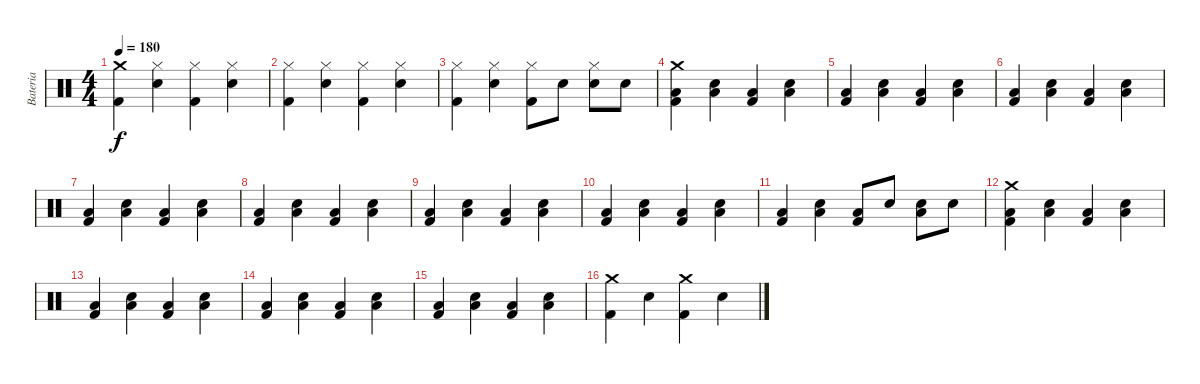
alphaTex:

\track ("Bateria" "Bateria") {instrument percussion}
\staff {score}
\articulation defaults
\ts (4 4)
\tempo 180
\clef neutral
\ks c
("Crash medium (hit)" "Kick (hit) 2").4{dy f} ("Hi-Hat (closed)" "Electric Snare (hit)").4 ("Hi-Hat (closed)" "Kick (hit) 2").4 ("Hi-Hat (closed)" "Electric Snare (hit)").4 |
("Hi-Hat (closed)" "Kick (hit) 2").4 ("Hi-Hat (closed)" "Electric Snare (hit)").4 ("Hi-Hat (closed)" "Kick (hit) 2").4 ("Hi-Hat (closed)" "Electric Snare (hit)").4 |
("Hi-Hat (closed)" "Kick (hit) 2").4 ("Hi-Hat (closed)" "Electric Snare (hit)").4 ("Hi-Hat (closed)" "Kick (hit) 2").8 "Electric Snare (hit)".8 ("Hi-Hat (closed)" "Electric Snare (hit)").8 "Electric Snare (hit)".8 |
("Low Tom (hit)" "Crash medium (hit)" "Kick (hit) 2").4 ("Low Tom (hit)" "Electric Snare (hit)").4 ("Low Tom (hit)" "Kick (hit) 2").4 ("Low Tom (hit)" "Electric Snare (hit)").4 |
("Low Tom (hit)" "Kick (hit) 2").4 ("Low Tom (hit)" "Electric Snare (hit)").4 ("Low Tom (hit)" "Kick (hit) 2").4 ("Low Tom (hit)" "Electric Snare (hit)").4 |
("Low Tom (hit)" "Kick (hit) 2").4 ("Low Tom (hit)" "Electric Snare (hit)").4 ("Low Tom (hit)" "Kick (hit) 2").4 ("Low Tom (hit)" "Electric Snare (hit)").4 |
("Low Tom (hit)" "Kick (hit) 2").4 ("Low Tom (hit)" "Electric Snare (hit)").4 ("Low Tom (hit)" "Kick (hit) 2").4 ("Low Tom (hit)" "Electric Snare (hit)").4 |
("Low Tom (hit)" "Kick (hit) 2").4 ("Low Tom (hit)" "Electric Snare (hit)").4 ("Low Tom (hit)" "Kick (hit) 2").4 ("Low Tom (hit)" "Electric Snare (hit)").4 |
("Low Tom (hit)" "Kick (hit) 2").4 ("Low Tom (hit)" "Electric Snare (hit)").4 ("Low Tom (hit)" "Kick (hit) 2").4 ("Low Tom (hit)" "Electric Snare (hit)").4 |
("Low Tom (hit)" "Kick (hit) 2").4 ("Low Tom (hit)" "Electric Snare (hit)").4 ("Low Tom (hit)" "Kick (hit) 2").4 ("Low Tom (hit)" "Electric Snare (hit)").4 |
("Low Tom (hit)" "Kick (hit) 2").4 ("Low Tom (hit)" "Electric Snare (hit)").4 ("Low Tom (hit)" "Kick (hit) 2").8 "Electric Snare (hit)".8 ("Low Tom (hit)" "Electric Snare (hit)").8 "Electric Snare (hit)".8 |
("Low Tom (hit)" "Crash medium (hit)" "Kick (hit) 2").4 ("Low Tom (hit)" "Electric Snare (hit)").4 ("Low Tom (hit)" "Kick (hit) 2").4 ("Low Tom (hit)" "Electric Snare (hit)").4 |
("Low Tom (hit)" "Kick (hit) 2").4 ("Low Tom (hit)" "Electric Snare (hit)").4 ("Low Tom (hit)" "Kick (hit) 2").4 ("Low Tom (hit)" "Electric Snare (hit)").4 |
("Low Tom (hit)" "Kick (hit) 2").4 ("Low Tom (hit)" "Electric Snare (hit)").4 ("Low Tom (hit)" "Kick (hit) 2").4 ("Low Tom (hit)" "Electric Snare (hit)").4 |
("Low Tom (hit)" "Kick (hit) 2").4 ("Low Tom (hit)" "Electric Snare (hit)").4 ("Low Tom (hit)" "Kick (hit) 2").4 ("Low Tom (hit)" "Electric Snare (hit)").4 |
("Crash medium (hit)" "Kick (hit) 2").4 "Electric Snare (hit)".4 ("Crash medium (hit)" "Kick (hit) 2").4 "Electric Snare (hit)".4
